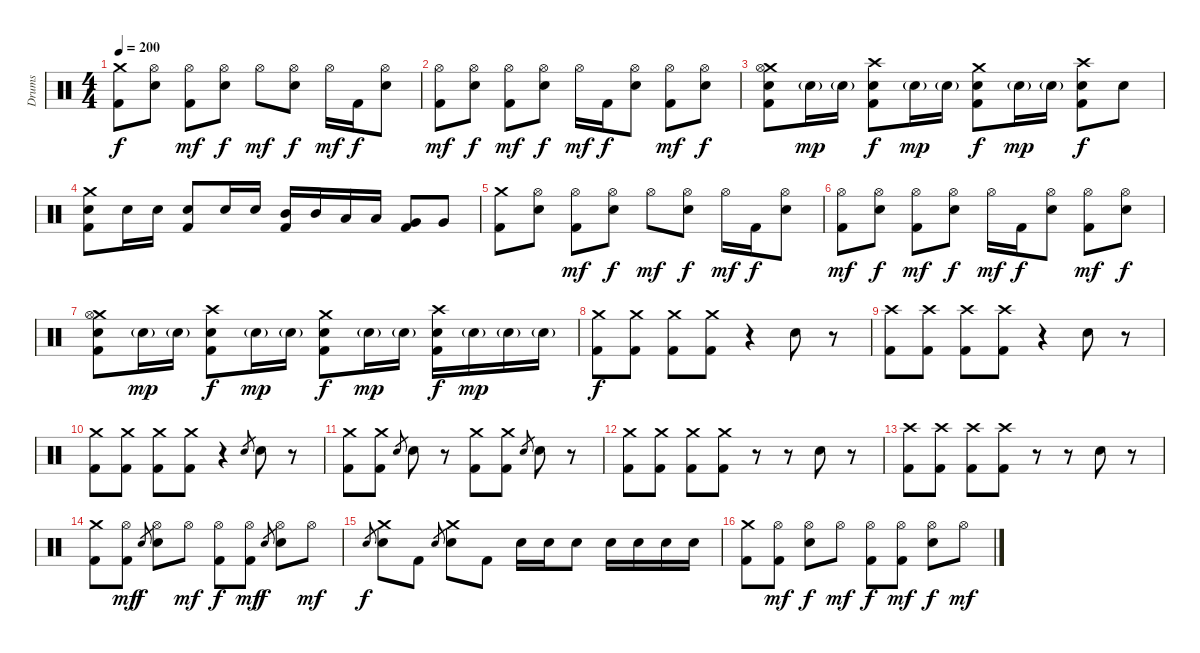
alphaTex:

\track ("Drums" "Drums") {instrument percussion}
\staff {score}
\articulation defaults
\ts (4 4)
\tempo 200
\clef neutral
\ks c
("Crash medium (hit)" "Kick (hit) 2").8{dy f} ("Hi-Hat (open)" "Electric Snare (hit)").8 ("Hi-Hat (open)" "Kick (hit) 2").8{dy mf} ("Hi-Hat (open)" "Electric Snare (hit)").8{dy f} "Hi-Hat (open)".8{dy mf} ("Hi-Hat (open)" "Electric Snare (hit)").8{dy f} "Hi-Hat (open)".16{dy mf} "Kick (hit) 2".16{dy f} ("Hi-Hat (open)" "Electric Snare (hit)").8 |
("Hi-Hat (open)" "Kick (hit) 2").8{dy mf} ("Hi-Hat (open)" "Electric Snare (hit)").8{dy f} ("Hi-Hat (open)" "Kick (hit) 2").8{dy mf} ("Hi-Hat (open)" "Electric Snare (hit)").8{dy f} "Hi-Hat (open)".16{dy mf} "Kick (hit) 2".16{dy f} ("Hi-Hat (open)" "Electric Snare (hit)").8 ("Hi-Hat (open)" "Kick (hit) 2").8{dy mf} ("Hi-Hat (open)" "Electric Snare (hit)").8{dy f} |
("Crash medium (hit)" "Hi-Hat (open)" "Electric Snare (hit)" "Kick (hit) 2").8 "Electric Snare (hit)"{g}.16{dy mp} "Electric Snare (hit)"{g}.16 ("Crash high (hit)" "Electric Snare (hit)" "Kick (hit) 2").8{dy f} "Electric Snare (hit)"{g}.16{dy mp} "Electric Snare (hit)"{g}.16 ("Crash medium (hit)" "Electric Snare (hit)" "Kick (hit) 2").8{dy f} "Electric Snare (hit)"{g}.16{dy mp} "Electric Snare (hit)"{g}.16 ("Crash high (hit)" "Electric Snare (hit)" "Kick (hit) 2").8{dy f} "Electric Snare (hit)".8 |
("Crash medium (hit)" "Electric Snare (hit)" "Kick (hit) 2").8 "Electric Snare (hit)".16 "Electric Snare (hit)".16 ("Electric Snare (hit)" "Kick (hit) 2").8 "Electric Snare (hit)".16 "Electric Snare (hit)".16 ("Mid Tom (hit)" "Kick (hit) 2").16 "Mid Tom (hit)".16 "Low Tom (hit)".16 "Low Tom (hit)".16 ("Very Low Tom (hit)" "Kick (hit) 2").8 "Very Low Tom (hit)".8 |
("Crash medium (hit)" "Kick (hit) 2").8 ("Hi-Hat (open)" "Electric Snare (hit)").8 ("Hi-Hat (open)" "Kick (hit) 2").8{dy mf} ("Hi-Hat (open)" "Electric Snare (hit)").8{dy f} "Hi-Hat (open)".8{dy mf} ("Hi-Hat (open)" "Electric Snare (hit)").8{dy f} "Hi-Hat (open)".16{dy mf} "Kick (hit) 2".16{dy f} ("Hi-Hat (open)" "Electric Snare (hit)").8 |
("Hi-Hat (open)" "Kick (hit) 2").8{dy mf} ("Hi-Hat (open)" "Electric Snare (hit)").8{dy f} ("Hi-Hat (open)" "Kick (hit) 2").8{dy mf} ("Hi-Hat (open)" "Electric Snare (hit)").8{dy f} "Hi-Hat (open)".16{dy mf} "Kick (hit) 2".16{dy f} ("Hi-Hat (open)" "Electric Snare (hit)").8 ("Hi-Hat (open)" "Kick (hit) 2").8{dy mf} ("Hi-Hat (open)" "Electric Snare (hit)").8{dy f} |
("Crash medium (hit)" "Hi-Hat (open)" "Electric Snare (hit)" "Kick (hit) 2").8 "Electric Snare (hit)"{g}.16{dy mp} "Electric Snare (hit)"{g}.16 ("Crash high (hit)" "Electric Snare (hit)" "Kick (hit) 2").8{dy f} "Electric Snare (hit)"{g}.16{dy mp} "Electric Snare (hit)"{g}.16 ("Crash medium (hit)" "Electric Snare (hit)" "Kick (hit) 2").8{dy f} "Electric Snare (hit)"{g}.16{dy mp} "Electric Snare (hit)"{g}.16 ("Crash high (hit)" "Electric Snare (hit)" "Kick (hit) 2").16{dy f} "Electric Snare (hit)"{g}.16{dy mp} "Electric Snare (hit)"{g}.16 "Electric Snare (hit)"{g}.16 |
("Crash medium (hit)" "Kick (hit) 2").8{dy f} ("Crash medium (hit)" "Kick (hit) 2").8 ("Crash medium (hit)" "Kick (hit) 2").8 ("Crash medium (hit)" "Kick (hit) 2").8 r.4 "Electric Snare (hit)".8 r.8 |
("Crash high (hit)" "Kick (hit) 2").8 ("Crash high (hit)" "Kick (hit) 2").8 ("Crash high (hit)" "Kick (hit) 2").8 ("Crash high (hit)" "Kick (hit) 2").8 r.4 "Electric Snare (hit)".8 r.8 |
("Crash medium (hit)" "Kick (hit) 2").8 ("Crash medium (hit)" "Kick (hit) 2").8 ("Crash medium (hit)" "Kick (hit) 2").8 ("Crash medium (hit)" "Kick (hit) 2").8 r.4 "Electric Snare (hit)".8{gr} "Electric Snare (hit)".8 r.8 |
("Crash medium (hit)" "Kick (hit) 2").8 ("Crash medium (hit)" "Kick (hit) 2").8 "Electric Snare (hit)".8{gr} "Electric Snare (hit)".8 r.8 ("Crash medium (hit)" "Kick (hit) 2").8 ("Crash medium (hit)" "Kick (hit) 2").8 "Electric Snare (hit)".8{gr} "Electric Snare (hit)".8 r.8 |
("Crash medium (hit)" "Kick (hit) 2").8 ("Crash medium (hit)" "Kick (hit) 2").8 ("Crash medium (hit)" "Kick (hit) 2").8 ("Crash medium (hit)" "Kick (hit) 2").8 r.8 r.8 "Electric Snare (hit)".8 r.8 |
("Crash high (hit)" "Kick (hit) 2").8 ("Crash high (hit)" "Kick (hit) 2").8 ("Crash high (hit)" "Kick (hit) 2").8 ("Crash high (hit)" "Kick (hit) 2").8 r.8 r.8 "Electric Snare (hit)".8 r.8 |
("Crash medium (hit)" "Kick (hit) 2").8 ("Hi-Hat (open)" "Kick (hit) 2").8{dy mf} "Electric Snare (hit)".8{gr dy f} ("Hi-Hat (open)" "Electric Snare (hit)").8 "Hi-Hat (open)".8{dy mf} ("Hi-Hat (open)" "Kick (hit) 2").8{dy f} ("Hi-Hat (open)" "Kick (hit) 2").8{dy mf} "Electric Snare (hit)".8{gr dy f} ("Hi-Hat (open)" "Electric Snare (hit)").8 "Hi-Hat (open)".8{dy mf} |
"Electric Snare (hit)".8{gr dy f} ("Crash medium (hit)" "Electric Snare (hit)").8 "Kick (hit) 2".8 "Electric Snare (hit)".8{gr} ("Crash medium (hit)" "Electric Snare (hit)").8 "Kick (hit) 2".8 "Electric Snare (hit)".16 "Electric Snare (hit)".16 "Electric Snare (hit)".8 "Electric Snare (hit)".16 "Electric Snare (hit)".16 "Electric Snare (hit)".16 "Electric Snare (hit)".16 |
("Crash medium (hit)" "Kick (hit) 2").8 ("Hi-Hat (open)" "Kick (hit) 2").8{dy mf} ("Hi-Hat (open)" "Electric Snare (hit)").8{dy f} "Hi-Hat (open)".8{dy mf} ("Hi-Hat (open)" "Kick (hit) 2").8{dy f} ("Hi-Hat (open)" "Kick (hit) 2").8{dy mf} ("Hi-Hat (open)" "Electric Snare (hit)").8{dy f} "Hi-Hat (open)".8{dy mf}
